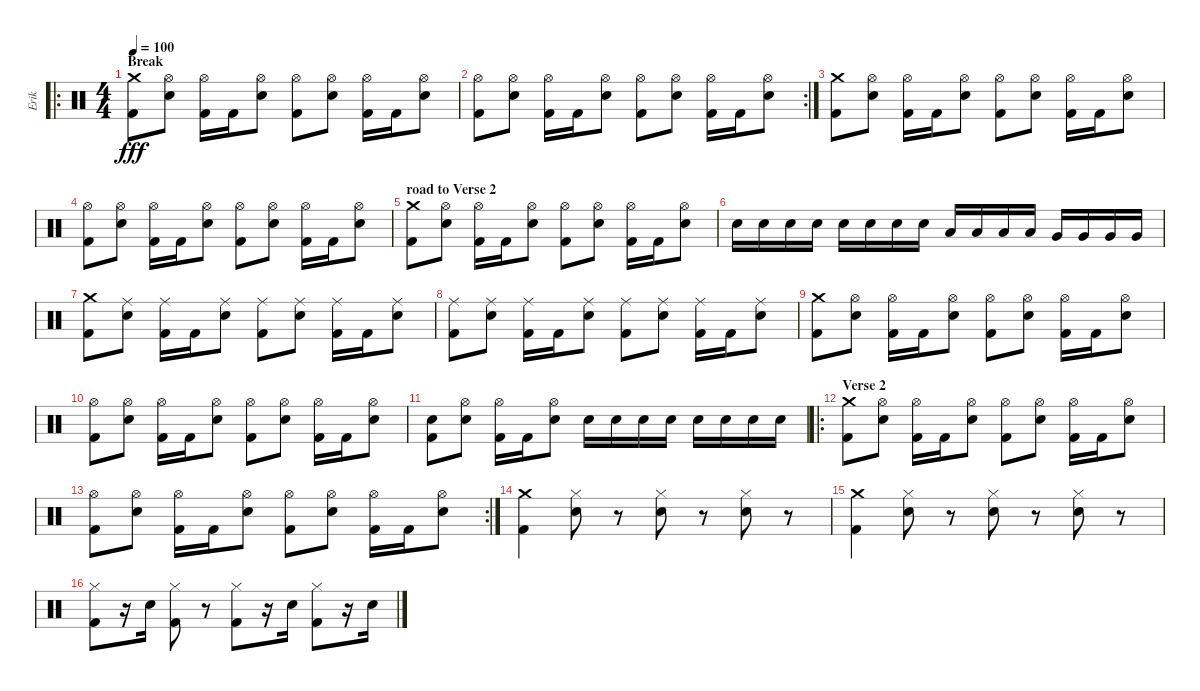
\track ("Erik" "Erik") {instrument percussion}
\staff {score}
\articulation defaults
\ro
\ts (4 4)
\section ("" "Break")
\tempo 100
\clef neutral
\ks c
("Kick (hit) 2" "Crash medium (hit)").8{dy fff} ("Electric Snare (hit)" "Hi-Hat (open)").8 ("Kick (hit) 2" "Hi-Hat (open)").16 "Kick (hit) 2".16 ("Electric Snare (hit)" "Hi-Hat (open)").8 ("Kick (hit) 2" "Hi-Hat (open)").8 ("Electric Snare (hit)" "Hi-Hat (open)").8 ("Kick (hit) 2" "Hi-Hat (open)").16 "Kick (hit) 2".16 ("Electric Snare (hit)" "Hi-Hat (open)").8 |
\rc 2
("Kick (hit) 2" "Hi-Hat (open)").8 ("Electric Snare (hit)" "Hi-Hat (open)").8 ("Kick (hit) 2" "Hi-Hat (open)").16 "Kick (hit) 2".16 ("Electric Snare (hit)" "Hi-Hat (open)").8 ("Kick (hit) 2" "Hi-Hat (open)").8 ("Electric Snare (hit)" "Hi-Hat (open)").8 ("Kick (hit) 2" "Hi-Hat (open)").16 "Kick (hit) 2".16 ("Electric Snare (hit)" "Hi-Hat (open)").8 |
("Kick (hit) 2" "Crash medium (hit)").8 ("Electric Snare (hit)" "Hi-Hat (open)").8 ("Kick (hit) 2" "Hi-Hat (open)").16 "Kick (hit) 2".16 ("Electric Snare (hit)" "Hi-Hat (open)").8 ("Kick (hit) 2" "Hi-Hat (open)").8 ("Electric Snare (hit)" "Hi-Hat (open)").8 ("Kick (hit) 2" "Hi-Hat (open)").16 "Kick (hit) 2".16 ("Electric Snare (hit)" "Hi-Hat (open)").8 |
("Kick (hit) 2" "Hi-Hat (open)").8 ("Electric Snare (hit)" "Hi-Hat (open)").8 ("Kick (hit) 2" "Hi-Hat (open)").16 "Kick (hit) 2".16 ("Electric Snare (hit)" "Hi-Hat (open)").8 ("Kick (hit) 2" "Hi-Hat (open)").8 ("Electric Snare (hit)" "Hi-Hat (open)").8 ("Kick (hit) 2" "Hi-Hat (open)").16 "Kick (hit) 2".16 ("Electric Snare (hit)" "Hi-Hat (open)").8 |
\section ("" "road to Verse 2")
("Kick (hit) 2" "Crash medium (hit)").8 ("Electric Snare (hit)" "Hi-Hat (open)").8 ("Kick (hit) 2" "Hi-Hat (open)").16 "Kick (hit) 2".16 ("Electric Snare (hit)" "Hi-Hat (open)").8 ("Kick (hit) 2" "Hi-Hat (open)").8 ("Electric Snare (hit)" "Hi-Hat (open)").8 ("Kick (hit) 2" "Hi-Hat (open)").16 "Kick (hit) 2".16 ("Electric Snare (hit)" "Hi-Hat (open)").8 |
"Electric Snare (hit)".16 "Electric Snare (hit)".16 "Electric Snare (hit)".16 "Electric Snare (hit)".16 "Electric Snare (hit)".16 "Electric Snare (hit)".16 "Electric Snare (hit)".16 "Electric Snare (hit)".16 "Low Tom (hit)".16 "Low Tom (hit)".16 "Low Tom (hit)".16 "Low Tom (hit)".16 "Very Low Tom (hit)".16 "Very Low Tom (hit)".16 "Very Low Tom (hit)".16 "Very Low Tom (hit)".16 |
("Kick (hit) 2" "Crash medium (hit)").8 ("Electric Snare (hit)" "Ride (middle)").8 ("Kick (hit) 2" "Ride (middle)").16 "Kick (hit) 2".16 ("Electric Snare (hit)" "Ride (middle)").8 ("Kick (hit) 2" "Ride (middle)").8 ("Electric Snare (hit)" "Ride (middle)").8 ("Kick (hit) 2" "Ride (middle)").16 "Kick (hit) 2".16 ("Electric Snare (hit)" "Ride (middle)").8 |
("Kick (hit) 2" "Ride (middle)").8 ("Electric Snare (hit)" "Ride (middle)").8 ("Kick (hit) 2" "Ride (middle)").16 "Kick (hit) 2".16 ("Electric Snare (hit)" "Ride (middle)").8 ("Kick (hit) 2" "Ride (middle)").8 ("Electric Snare (hit)" "Ride (middle)").8 ("Kick (hit) 2" "Ride (middle)").16 "Kick (hit) 2".16 ("Electric Snare (hit)" "Ride (middle)").8 |
("Kick (hit) 2" "Crash medium (hit)").8 ("Electric Snare (hit)" "Hi-Hat (open)").8 ("Kick (hit) 2" "Hi-Hat (open)").16 "Kick (hit) 2".16 ("Electric Snare (hit)" "Hi-Hat (open)").8 ("Kick (hit) 2" "Hi-Hat (open)").8 ("Electric Snare (hit)" "Hi-Hat (open)").8 ("Kick (hit) 2" "Hi-Hat (open)").16 "Kick (hit) 2".16 ("Electric Snare (hit)" "Hi-Hat (open)").8 |
("Kick (hit) 2" "Hi-Hat (open)").8 ("Electric Snare (hit)" "Hi-Hat (open)").8 ("Kick (hit) 2" "Hi-Hat (open)").16 "Kick (hit) 2".16 ("Electric Snare (hit)" "Hi-Hat (open)").8 ("Kick (hit) 2" "Hi-Hat (open)").8 ("Electric Snare (hit)" "Hi-Hat (open)").8 ("Kick (hit) 2" "Hi-Hat (open)").16 "Kick (hit) 2".16 ("Electric Snare (hit)" "Hi-Hat (open)").8 |
("Kick (hit) 2" "Electric Snare (hit)").8 ("Electric Snare (hit)" "Hi-Hat (open)").8 ("Kick (hit) 2" "Hi-Hat (open)").16 "Kick (hit) 2".16 ("Electric Snare (hit)" "Hi-Hat (open)").8 "Electric Snare (hit)".16 "Electric Snare (hit)".16 "Electric Snare (hit)".16 "Electric Snare (hit)".16 "Electric Snare (hit)".16 "Electric Snare (hit)".16 "Electric Snare (hit)".16 "Electric Snare (hit)".16 |
\ro
\section ("" "Verse 2")
("Kick (hit) 2" "Crash medium (hit)").8 ("Electric Snare (hit)" "Hi-Hat (open)").8 ("Kick (hit) 2" "Hi-Hat (open)").16 "Kick (hit) 2".16 ("Electric Snare (hit)" "Hi-Hat (open)").8 ("Kick (hit) 2" "Hi-Hat (open)").8 ("Electric Snare (hit)" "Hi-Hat (open)").8 ("Kick (hit) 2" "Hi-Hat (open)").16 "Kick (hit) 2".16 ("Electric Snare (hit)" "Hi-Hat (open)").8 |
\rc 2
("Kick (hit) 2" "Hi-Hat (open)").8 ("Electric Snare (hit)" "Hi-Hat (open)").8 ("Kick (hit) 2" "Hi-Hat (open)").16 "Kick (hit) 2".16 ("Electric Snare (hit)" "Hi-Hat (open)").8 ("Kick (hit) 2" "Hi-Hat (open)").8 ("Electric Snare (hit)" "Hi-Hat (open)").8 ("Kick (hit) 2" "Hi-Hat (open)").16 "Kick (hit) 2".16 ("Electric Snare (hit)" "Hi-Hat (open)").8 |
("Kick (hit) 2" "Crash medium (hit)").4 ("Electric Snare (hit)" "Hi-Hat (closed)").8 r.8 ("Electric Snare (hit)" "Hi-Hat (closed)").8 r.8 ("Electric Snare (hit)" "Hi-Hat (closed)").8 r.8 |
("Kick (hit) 2" "Crash medium (hit)").4 ("Electric Snare (hit)" "Hi-Hat (closed)").8 r.8 ("Electric Snare (hit)" "Hi-Hat (closed)").8 r.8 ("Electric Snare (hit)" "Hi-Hat (closed)").8 r.8 |
("Kick (hit) 2" "Hi-Hat (closed)").8 r.16 "Electric Snare (hit)".16 ("Kick (hit) 2" "Hi-Hat (closed)").8 r.8 ("Kick (hit) 2" "Hi-Hat (closed)").8 r.16 "Electric Snare (hit)".16 ("Kick (hit) 2" "Hi-Hat (closed)").8 r.16 "Electric Snare (hit)".16
